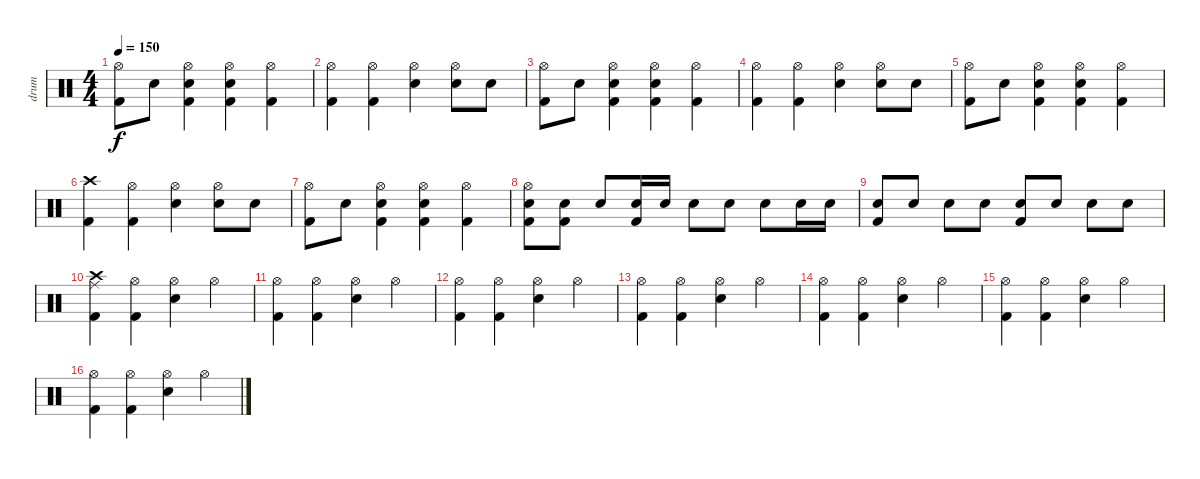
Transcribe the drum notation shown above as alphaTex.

\track ("drum" "drum") {instrument percussion}
\staff {score}
\articulation defaults
\ts (4 4)
\tempo 150
\clef neutral
\ks c
("Hi-Hat (open)" "Kick (hit) 2").8{dy f} "Snare (hit) 2".8 ("Hi-Hat (open)" "Snare (hit) 2" "Kick (hit) 2").4 ("Hi-Hat (open)" "Snare (hit) 2" "Kick (hit) 2").4 ("Hi-Hat (open)" "Kick (hit) 2").4 |
("Hi-Hat (open)" "Kick (hit) 2").4 ("Hi-Hat (open)" "Kick (hit) 2").4 ("Hi-Hat (open)" "Snare (hit) 2").4 ("Hi-Hat (open)" "Snare (hit) 2").8 "Snare (hit) 2".8 |
("Hi-Hat (open)" "Kick (hit) 2").8 "Snare (hit) 2".8 ("Hi-Hat (open)" "Snare (hit) 2" "Kick (hit) 2").4 ("Hi-Hat (open)" "Snare (hit) 2" "Kick (hit) 2").4 ("Hi-Hat (open)" "Kick (hit) 2").4 |
("Hi-Hat (open)" "Kick (hit) 2").4 ("Hi-Hat (open)" "Kick (hit) 2").4 ("Hi-Hat (open)" "Snare (hit) 2").4 ("Hi-Hat (open)" "Snare (hit) 2").8 "Snare (hit) 2".8 |
("Hi-Hat (open)" "Kick (hit) 2").8 "Snare (hit) 2".8 ("Hi-Hat (open)" "Snare (hit) 2" "Kick (hit) 2").4 ("Hi-Hat (open)" "Snare (hit) 2" "Kick (hit) 2").4 ("Hi-Hat (open)" "Kick (hit) 2").4 |
("Crash high (hit)" "Kick (hit) 2").4 ("Hi-Hat (open)" "Kick (hit) 2").4 ("Hi-Hat (open)" "Snare (hit) 2").4 ("Hi-Hat (open)" "Snare (hit) 2").8 "Snare (hit) 2".8 |
("Hi-Hat (open)" "Kick (hit) 2").8 "Snare (hit) 2".8 ("Hi-Hat (open)" "Snare (hit) 2" "Kick (hit) 2").4 ("Hi-Hat (open)" "Snare (hit) 2" "Kick (hit) 2").4 ("Hi-Hat (open)" "Kick (hit) 2").4 |
("Hi-Hat (open)" "Snare (hit) 2" "Kick (hit) 2").8 ("Snare (hit) 2" "Kick (hit) 2").8 "Snare (hit) 2".8 ("Snare (hit) 2" "Kick (hit) 2").16 "Snare (hit) 2".16 "Snare (hit) 2".8 "Snare (hit) 2".8 "Snare (hit) 2".8 "Snare (hit) 2".16 "Snare (hit) 2".16 |
("Snare (hit) 2" "Kick (hit) 2").8 "Snare (hit) 2".8 "Snare (hit) 2".8 "Snare (hit) 2".8 ("Snare (hit) 2" "Kick (hit) 2").8 "Snare (hit) 2".8 "Snare (hit) 2".8 "Snare (hit) 2".8 |
("Ride (middle)" "Crash high (hit)" "Kick (hit) 2").4 ("Hi-Hat (open)" "Kick (hit) 2").4 ("Hi-Hat (open)" "Snare (hit) 2").4 "Hi-Hat (open)".4 |
("Hi-Hat (open)" "Kick (hit) 2").4 ("Hi-Hat (open)" "Kick (hit) 2").4 ("Hi-Hat (open)" "Snare (hit) 2").4 "Hi-Hat (open)".4 |
("Hi-Hat (open)" "Kick (hit) 2").4 ("Hi-Hat (open)" "Kick (hit) 2").4 ("Hi-Hat (open)" "Snare (hit) 2").4 "Hi-Hat (open)".4 |
("Hi-Hat (open)" "Kick (hit) 2").4 ("Hi-Hat (open)" "Kick (hit) 2").4 ("Hi-Hat (open)" "Snare (hit) 2").4 "Hi-Hat (open)".4 |
("Hi-Hat (open)" "Kick (hit) 2").4 ("Hi-Hat (open)" "Kick (hit) 2").4 ("Hi-Hat (open)" "Snare (hit) 2").4 "Hi-Hat (open)".4 |
("Hi-Hat (open)" "Kick (hit) 2").4 ("Hi-Hat (open)" "Kick (hit) 2").4 ("Hi-Hat (open)" "Snare (hit) 2").4 "Hi-Hat (open)".4 |
("Hi-Hat (open)" "Kick (hit) 2").4 ("Hi-Hat (open)" "Kick (hit) 2").4 ("Hi-Hat (open)" "Snare (hit) 2").4 "Hi-Hat (open)".4
